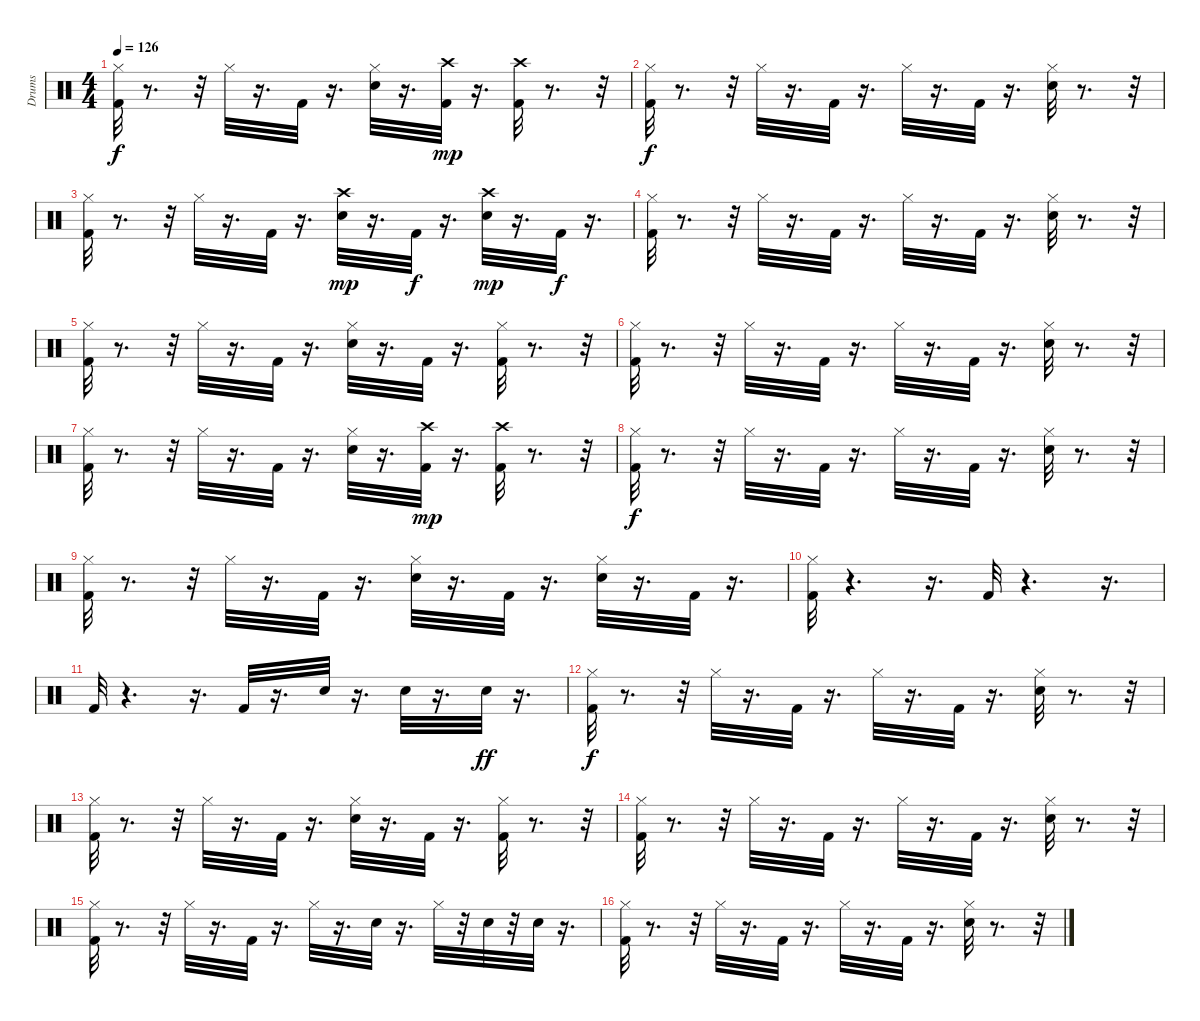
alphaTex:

\track ("Drums" "Drums") {instrument percussion}
\staff {score}
\articulation defaults
\ts (4 4)
\tempo 126
\clef neutral
\ks c
("Kick (hit) 2" "Hi-Hat (closed)").32{dy f} r.8{d} r.32 "Hi-Hat (closed)".32 r.16{d} "Kick (hit) 2".32 r.16{d} ("Snare (hit) 2" "Hi-Hat (closed)").32 r.16{d} ("Kick (hit) 2" "Crash high (hit)").32{dy mp} r.16{d} ("Kick (hit) 2" "Crash high (hit)").32 r.8{d} r.32 |
("Kick (hit) 2" "Hi-Hat (closed)").32{dy f} r.8{d} r.32 "Hi-Hat (closed)".32 r.16{d} "Kick (hit) 2".32 r.16{d} "Hi-Hat (closed)".32 r.16{d} "Kick (hit) 2".32 r.16{d} ("Snare (hit) 2" "Hi-Hat (closed)").32 r.8{d} r.32 |
("Kick (hit) 2" "Hi-Hat (closed)").32 r.8{d} r.32 "Hi-Hat (closed)".32 r.16{d} "Kick (hit) 2".32 r.16{d} ("Snare (hit) 2" "Crash high (hit)").32{dy mp} r.16{d} "Kick (hit) 2".32{dy f} r.16{d} ("Snare (hit) 2" "Crash high (hit)").32{dy mp} r.16{d} "Kick (hit) 2".32{dy f} r.16{d} |
("Kick (hit) 2" "Hi-Hat (closed)").32 r.8{d} r.32 "Hi-Hat (closed)".32 r.16{d} "Kick (hit) 2".32 r.16{d} "Hi-Hat (closed)".32 r.16{d} "Kick (hit) 2".32 r.16{d} ("Snare (hit) 2" "Hi-Hat (closed)").32 r.8{d} r.32 |
("Kick (hit) 2" "Hi-Hat (closed)").32 r.8{d} r.32 "Hi-Hat (closed)".32 r.16{d} "Kick (hit) 2".32 r.16{d} ("Snare (hit) 2" "Hi-Hat (closed)").32 r.16{d} "Kick (hit) 2".32 r.16{d} ("Kick (hit) 2" "Hi-Hat (closed)").32 r.8{d} r.32 |
("Kick (hit) 2" "Hi-Hat (closed)").32 r.8{d} r.32 "Hi-Hat (closed)".32 r.16{d} "Kick (hit) 2".32 r.16{d} "Hi-Hat (closed)".32 r.16{d} "Kick (hit) 2".32 r.16{d} ("Snare (hit) 2" "Hi-Hat (closed)").32 r.8{d} r.32 |
("Kick (hit) 2" "Hi-Hat (closed)").32 r.8{d} r.32 "Hi-Hat (closed)".32 r.16{d} "Kick (hit) 2".32 r.16{d} ("Snare (hit) 2" "Hi-Hat (closed)").32 r.16{d} ("Kick (hit) 2" "Crash high (hit)").32{dy mp} r.16{d} ("Kick (hit) 2" "Crash high (hit)").32 r.8{d} r.32 |
("Kick (hit) 2" "Hi-Hat (closed)").32{dy f} r.8{d} r.32 "Hi-Hat (closed)".32 r.16{d} "Kick (hit) 2".32 r.16{d} "Hi-Hat (closed)".32 r.16{d} "Kick (hit) 2".32 r.16{d} ("Snare (hit) 2" "Hi-Hat (closed)").32 r.8{d} r.32 |
("Kick (hit) 2" "Hi-Hat (closed)").32 r.8{d} r.32 "Hi-Hat (closed)".32 r.16{d} "Kick (hit) 2".32 r.16{d} ("Snare (hit) 2" "Hi-Hat (closed)").32 r.16{d} "Kick (hit) 2".32 r.16{d} ("Snare (hit) 2" "Hi-Hat (closed)").32 r.16{d} "Kick (hit) 2".32 r.16{d} |
("Kick (hit) 2" "Hi-Hat (closed)").32 r.4{d} r.16{d} "Kick (hit) 2".32 r.4{d} r.16{d} |
"Kick (hit) 2".32 r.4{d} r.16{d} "Kick (hit) 2".32 r.16{d} "Snare (hit) 2".32 r.16{d} "Snare (hit) 2".32 r.16{d} "Snare (hit) 2".32{dy ff} r.16{d} |
("Kick (hit) 2" "Hi-Hat (closed)").32{dy f} r.8{d} r.32 "Hi-Hat (closed)".32 r.16{d} "Kick (hit) 2".32 r.16{d} "Hi-Hat (closed)".32 r.16{d} "Kick (hit) 2".32 r.16{d} ("Snare (hit) 2" "Hi-Hat (closed)").32 r.8{d} r.32 |
("Kick (hit) 2" "Hi-Hat (closed)").32 r.8{d} r.32 "Hi-Hat (closed)".32 r.16{d} "Kick (hit) 2".32 r.16{d} ("Snare (hit) 2" "Hi-Hat (closed)").32 r.16{d} "Kick (hit) 2".32 r.16{d} ("Kick (hit) 2" "Hi-Hat (closed)").32 r.8{d} r.32 |
("Kick (hit) 2" "Hi-Hat (closed)").32 r.8{d} r.32 "Hi-Hat (closed)".32 r.16{d} "Kick (hit) 2".32 r.16{d} "Hi-Hat (closed)".32 r.16{d} "Kick (hit) 2".32 r.16{d} ("Snare (hit) 2" "Hi-Hat (closed)").32 r.8{d} r.32 |
("Kick (hit) 2" "Hi-Hat (closed)").32 r.8{d} r.32 "Hi-Hat (closed)".32 r.16{d} "Kick (hit) 2".32 r.16{d} "Hi-Hat (closed)".32 r.16{d} "Snare (hit) 2".32 r.16{d} "Hi-Hat (closed)".32 r.32 "Snare (hit) 2".32 r.32 "Snare (hit) 2".32 r.16{d} |
("Kick (hit) 2" "Hi-Hat (closed)").32 r.8{d} r.32 "Hi-Hat (closed)".32 r.16{d} "Kick (hit) 2".32 r.16{d} "Hi-Hat (closed)".32 r.16{d} "Kick (hit) 2".32 r.16{d} ("Snare (hit) 2" "Hi-Hat (closed)").32 r.8{d} r.32
